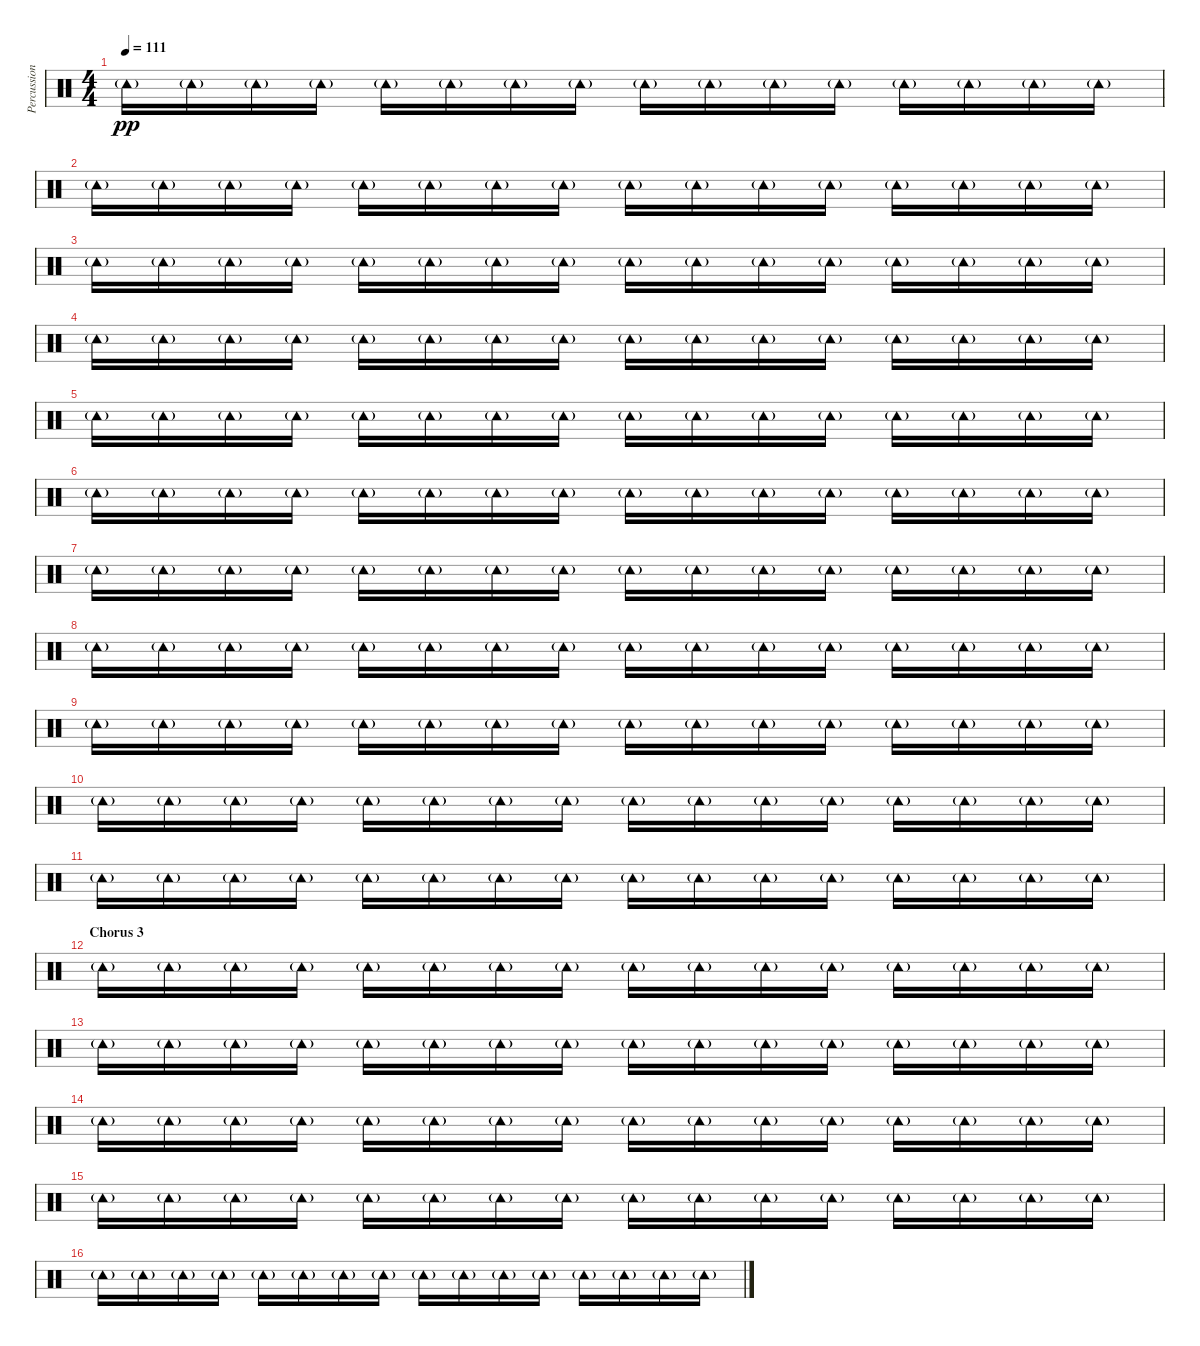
\track ("Percussion" "Percussion") {instrument percussion}
\staff {score}
\articulation defaults
\ts (4 4)
\tempo 111
\clef neutral
\ks c "Tambourine (hit)"{g}.16{dy pp} "Tambourine (hit)"{g}.16 "Tambourine (hit)"{g}.16 "Tambourine (hit)"{g}.16 "Tambourine (hit)"{g}.16 "Tambourine (hit)"{g}.16 "Tambourine (hit)"{g}.16 "Tambourine (hit)"{g}.16 "Tambourine (hit)"{g}.16 "Tambourine (hit)"{g}.16 "Tambourine (hit)"{g}.16 "Tambourine (hit)"{g}.16 "Tambourine (hit)"{g}.16 "Tambourine (hit)"{g}.16 "Tambourine (hit)"{g}.16 "Tambourine (hit)"{g}.16
|
"Tambourine (hit)"{g}.16 "Tambourine (hit)"{g}.16 "Tambourine (hit)"{g}.16 "Tambourine (hit)"{g}.16 "Tambourine (hit)"{g}.16 "Tambourine (hit)"{g}.16 "Tambourine (hit)"{g}.16 "Tambourine (hit)"{g}.16 "Tambourine (hit)"{g}.16 "Tambourine (hit)"{g}.16 "Tambourine (hit)"{g}.16 "Tambourine (hit)"{g}.16 "Tambourine (hit)"{g}.16 "Tambourine (hit)"{g}.16 "Tambourine (hit)"{g}.16 "Tambourine (hit)"{g}.16 |
"Tambourine (hit)"{g}.16 "Tambourine (hit)"{g}.16 "Tambourine (hit)"{g}.16 "Tambourine (hit)"{g}.16 "Tambourine (hit)"{g}.16 "Tambourine (hit)"{g}.16 "Tambourine (hit)"{g}.16 "Tambourine (hit)"{g}.16 "Tambourine (hit)"{g}.16 "Tambourine (hit)"{g}.16 "Tambourine (hit)"{g}.16 "Tambourine (hit)"{g}.16 "Tambourine (hit)"{g}.16 "Tambourine (hit)"{g}.16 "Tambourine (hit)"{g}.16 "Tambourine (hit)"{g}.16 |
"Tambourine (hit)"{g}.16 "Tambourine (hit)"{g}.16 "Tambourine (hit)"{g}.16 "Tambourine (hit)"{g}.16 "Tambourine (hit)"{g}.16 "Tambourine (hit)"{g}.16 "Tambourine (hit)"{g}.16 "Tambourine (hit)"{g}.16 "Tambourine (hit)"{g}.16 "Tambourine (hit)"{g}.16 "Tambourine (hit)"{g}.16 "Tambourine (hit)"{g}.16 "Tambourine (hit)"{g}.16 "Tambourine (hit)"{g}.16 "Tambourine (hit)"{g}.16 "Tambourine (hit)"{g}.16 |
"Tambourine (hit)"{g}.16 "Tambourine (hit)"{g}.16 "Tambourine (hit)"{g}.16 "Tambourine (hit)"{g}.16 "Tambourine (hit)"{g}.16 "Tambourine (hit)"{g}.16 "Tambourine (hit)"{g}.16 "Tambourine (hit)"{g}.16 "Tambourine (hit)"{g}.16 "Tambourine (hit)"{g}.16 "Tambourine (hit)"{g}.16 "Tambourine (hit)"{g}.16 "Tambourine (hit)"{g}.16 "Tambourine (hit)"{g}.16 "Tambourine (hit)"{g}.16 "Tambourine (hit)"{g}.16 |
"Tambourine (hit)"{g}.16 "Tambourine (hit)"{g}.16 "Tambourine (hit)"{g}.16 "Tambourine (hit)"{g}.16 "Tambourine (hit)"{g}.16 "Tambourine (hit)"{g}.16 "Tambourine (hit)"{g}.16 "Tambourine (hit)"{g}.16 "Tambourine (hit)"{g}.16 "Tambourine (hit)"{g}.16 "Tambourine (hit)"{g}.16 "Tambourine (hit)"{g}.16 "Tambourine (hit)"{g}.16 "Tambourine (hit)"{g}.16 "Tambourine (hit)"{g}.16 "Tambourine (hit)"{g}.16 |
"Tambourine (hit)"{g}.16 "Tambourine (hit)"{g}.16 "Tambourine (hit)"{g}.16 "Tambourine (hit)"{g}.16 "Tambourine (hit)"{g}.16 "Tambourine (hit)"{g}.16 "Tambourine (hit)"{g}.16 "Tambourine (hit)"{g}.16 "Tambourine (hit)"{g}.16 "Tambourine (hit)"{g}.16 "Tambourine (hit)"{g}.16 "Tambourine (hit)"{g}.16 "Tambourine (hit)"{g}.16 "Tambourine (hit)"{g}.16 "Tambourine (hit)"{g}.16 "Tambourine (hit)"{g}.16 |
"Tambourine (hit)"{g}.16 "Tambourine (hit)"{g}.16 "Tambourine (hit)"{g}.16 "Tambourine (hit)"{g}.16 "Tambourine (hit)"{g}.16 "Tambourine (hit)"{g}.16 "Tambourine (hit)"{g}.16 "Tambourine (hit)"{g}.16 "Tambourine (hit)"{g}.16 "Tambourine (hit)"{g}.16 "Tambourine (hit)"{g}.16 "Tambourine (hit)"{g}.16 "Tambourine (hit)"{g}.16 "Tambourine (hit)"{g}.16 "Tambourine (hit)"{g}.16 "Tambourine (hit)"{g}.16 |
"Tambourine (hit)"{g}.16 "Tambourine (hit)"{g}.16 "Tambourine (hit)"{g}.16 "Tambourine (hit)"{g}.16 "Tambourine (hit)"{g}.16 "Tambourine (hit)"{g}.16 "Tambourine (hit)"{g}.16 "Tambourine (hit)"{g}.16 "Tambourine (hit)"{g}.16 "Tambourine (hit)"{g}.16 "Tambourine (hit)"{g}.16 "Tambourine (hit)"{g}.16 "Tambourine (hit)"{g}.16 "Tambourine (hit)"{g}.16 "Tambourine (hit)"{g}.16 "Tambourine (hit)"{g}.16 |
"Tambourine (hit)"{g}.16 "Tambourine (hit)"{g}.16 "Tambourine (hit)"{g}.16 "Tambourine (hit)"{g}.16 "Tambourine (hit)"{g}.16 "Tambourine (hit)"{g}.16 "Tambourine (hit)"{g}.16 "Tambourine (hit)"{g}.16 "Tambourine (hit)"{g}.16 "Tambourine (hit)"{g}.16 "Tambourine (hit)"{g}.16 "Tambourine (hit)"{g}.16 "Tambourine (hit)"{g}.16 "Tambourine (hit)"{g}.16 "Tambourine (hit)"{g}.16 "Tambourine (hit)"{g}.16 |
"Tambourine (hit)"{g}.16 "Tambourine (hit)"{g}.16 "Tambourine (hit)"{g}.16 "Tambourine (hit)"{g}.16 "Tambourine (hit)"{g}.16 "Tambourine (hit)"{g}.16 "Tambourine (hit)"{g}.16 "Tambourine (hit)"{g}.16 "Tambourine (hit)"{g}.16 "Tambourine (hit)"{g}.16 "Tambourine (hit)"{g}.16 "Tambourine (hit)"{g}.16 "Tambourine (hit)"{g}.16 "Tambourine (hit)"{g}.16 "Tambourine (hit)"{g}.16 "Tambourine (hit)"{g}.16 |
\section ("" "Chorus 3")
"Tambourine (hit)"{g}.16 "Tambourine (hit)"{g}.16 "Tambourine (hit)"{g}.16 "Tambourine (hit)"{g}.16 "Tambourine (hit)"{g}.16 "Tambourine (hit)"{g}.16 "Tambourine (hit)"{g}.16 "Tambourine (hit)"{g}.16 "Tambourine (hit)"{g}.16 "Tambourine (hit)"{g}.16 "Tambourine (hit)"{g}.16 "Tambourine (hit)"{g}.16 "Tambourine (hit)"{g}.16 "Tambourine (hit)"{g}.16 "Tambourine (hit)"{g}.16 "Tambourine (hit)"{g}.16 |
"Tambourine (hit)"{g}.16 "Tambourine (hit)"{g}.16 "Tambourine (hit)"{g}.16 "Tambourine (hit)"{g}.16 "Tambourine (hit)"{g}.16 "Tambourine (hit)"{g}.16 "Tambourine (hit)"{g}.16 "Tambourine (hit)"{g}.16 "Tambourine (hit)"{g}.16 "Tambourine (hit)"{g}.16 "Tambourine (hit)"{g}.16 "Tambourine (hit)"{g}.16 "Tambourine (hit)"{g}.16 "Tambourine (hit)"{g}.16 "Tambourine (hit)"{g}.16 "Tambourine (hit)"{g}.16 |
"Tambourine (hit)"{g}.16 "Tambourine (hit)"{g}.16 "Tambourine (hit)"{g}.16 "Tambourine (hit)"{g}.16 "Tambourine (hit)"{g}.16 "Tambourine (hit)"{g}.16 "Tambourine (hit)"{g}.16 "Tambourine (hit)"{g}.16 "Tambourine (hit)"{g}.16 "Tambourine (hit)"{g}.16 "Tambourine (hit)"{g}.16 "Tambourine (hit)"{g}.16 "Tambourine (hit)"{g}.16 "Tambourine (hit)"{g}.16 "Tambourine (hit)"{g}.16 "Tambourine (hit)"{g}.16 |
"Tambourine (hit)"{g}.16 "Tambourine (hit)"{g}.16 "Tambourine (hit)"{g}.16 "Tambourine (hit)"{g}.16 "Tambourine (hit)"{g}.16 "Tambourine (hit)"{g}.16 "Tambourine (hit)"{g}.16 "Tambourine (hit)"{g}.16 "Tambourine (hit)"{g}.16 "Tambourine (hit)"{g}.16 "Tambourine (hit)"{g}.16 "Tambourine (hit)"{g}.16 "Tambourine (hit)"{g}.16 "Tambourine (hit)"{g}.16 "Tambourine (hit)"{g}.16 "Tambourine (hit)"{g}.16 |
"Tambourine (hit)"{g}.16 "Tambourine (hit)"{g}.16 "Tambourine (hit)"{g}.16 "Tambourine (hit)"{g}.16 "Tambourine (hit)"{g}.16 "Tambourine (hit)"{g}.16 "Tambourine (hit)"{g}.16 "Tambourine (hit)"{g}.16 "Tambourine (hit)"{g}.16 "Tambourine (hit)"{g}.16 "Tambourine (hit)"{g}.16 "Tambourine (hit)"{g}.16 "Tambourine (hit)"{g}.16 "Tambourine (hit)"{g}.16 "Tambourine (hit)"{g}.16 "Tambourine (hit)"{g}.16
